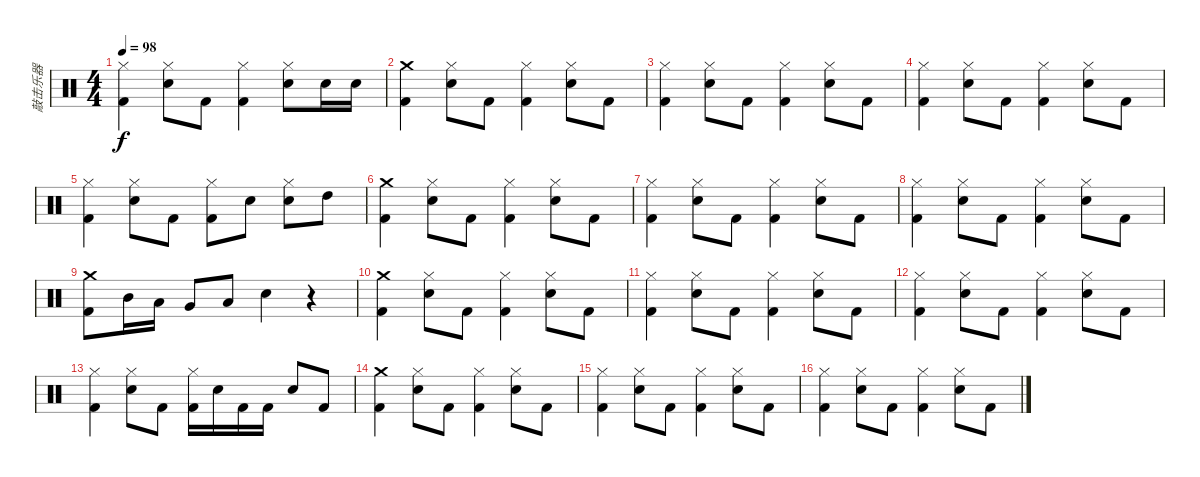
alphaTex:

\track ("敲击乐器" "敲击乐器") {instrument percussion}
\staff {score}
\articulation defaults
\ts (4 4)
\tempo 98
\clef neutral
\ks c
("Hi-Hat (closed)" "Kick (hit) 2").4{dy f} ("Hi-Hat (closed)" "Snare (hit) 2").8 "Kick (hit) 2".8 ("Hi-Hat (closed)" "Kick (hit) 2").4 ("Hi-Hat (closed)" "Snare (hit) 2").8 "Snare (hit) 2".16 "Snare (hit) 2".16 |
("Crash medium (hit)" "Kick (hit) 2").4 ("Hi-Hat (closed)" "Snare (hit) 2").8 "Kick (hit) 2".8 ("Hi-Hat (closed)" "Kick (hit) 2").4 ("Hi-Hat (closed)" "Snare (hit) 2").8 "Kick (hit) 2".8 |
("Hi-Hat (closed)" "Kick (hit) 2").4 ("Hi-Hat (closed)" "Snare (hit) 2").8 "Kick (hit) 2".8 ("Hi-Hat (closed)" "Kick (hit) 2").4 ("Hi-Hat (closed)" "Snare (hit) 2").8 "Kick (hit) 2".8 |
("Hi-Hat (closed)" "Kick (hit) 2").4 ("Hi-Hat (closed)" "Snare (hit) 2").8 "Kick (hit) 2".8 ("Hi-Hat (closed)" "Kick (hit) 2").4 ("Hi-Hat (closed)" "Snare (hit) 2").8 "Kick (hit) 2".8 |
("Hi-Hat (closed)" "Kick (hit) 2").4 ("Hi-Hat (closed)" "Snare (hit) 2").8 "Kick (hit) 2".8 ("Hi-Hat (closed)" "Kick (hit) 2").8 "Snare (hit) 2".8 ("Hi-Hat (closed)" "Snare (hit) 2").8 "High Tom (hit)".8 |
("Crash medium (hit)" "Kick (hit) 2").4 ("Hi-Hat (closed)" "Snare (hit) 2").8 "Kick (hit) 2".8 ("Hi-Hat (closed)" "Kick (hit) 2").4 ("Hi-Hat (closed)" "Snare (hit) 2").8 "Kick (hit) 2".8 |
("Hi-Hat (closed)" "Kick (hit) 2").4 ("Hi-Hat (closed)" "Snare (hit) 2").8 "Kick (hit) 2".8 ("Hi-Hat (closed)" "Kick (hit) 2").4 ("Hi-Hat (closed)" "Snare (hit) 2").8 "Kick (hit) 2".8 |
("Hi-Hat (closed)" "Kick (hit) 2").4 ("Hi-Hat (closed)" "Snare (hit) 2").8 "Kick (hit) 2".8 ("Hi-Hat (closed)" "Kick (hit) 2").4 ("Hi-Hat (closed)" "Snare (hit) 2").8 "Kick (hit) 2".8 |
("Crash medium (hit)" "Kick (hit) 2").8 "Mid Tom (hit)".16 "Low Tom (hit)".16 "Very Low Tom (hit)".8 "Low Floor Tom (hit)".8 "Snare (hit) 2".4 r.4 |
("Crash medium (hit)" "Kick (hit) 2").4 ("Hi-Hat (closed)" "Snare (hit) 2").8 "Kick (hit) 2".8 ("Hi-Hat (closed)" "Kick (hit) 2").4 ("Hi-Hat (closed)" "Snare (hit) 2").8 "Kick (hit) 2".8 |
("Hi-Hat (closed)" "Kick (hit) 2").4 ("Hi-Hat (closed)" "Snare (hit) 2").8 "Kick (hit) 2".8 ("Hi-Hat (closed)" "Kick (hit) 2").4 ("Hi-Hat (closed)" "Snare (hit) 2").8 "Kick (hit) 2".8 |
("Hi-Hat (closed)" "Kick (hit) 2").4 ("Hi-Hat (closed)" "Snare (hit) 2").8 "Kick (hit) 2".8 ("Hi-Hat (closed)" "Kick (hit) 2").4 ("Hi-Hat (closed)" "Snare (hit) 2").8 "Kick (hit) 2".8 |
("Hi-Hat (closed)" "Kick (hit) 2").4 ("Hi-Hat (closed)" "Snare (hit) 2").8 "Kick (hit) 2".8 ("Hi-Hat (closed)" "Kick (hit) 2").16 "Snare (hit) 2".16 "Kick (hit) 2".16 "Kick (hit) 2".16 "Snare (hit) 2".8 "Kick (hit) 2".8 |
("Crash medium (hit)" "Kick (hit) 2").4 ("Hi-Hat (closed)" "Snare (hit) 2").8 "Kick (hit) 2".8 ("Hi-Hat (closed)" "Kick (hit) 2").4 ("Hi-Hat (closed)" "Snare (hit) 2").8 "Kick (hit) 2".8 |
("Hi-Hat (closed)" "Kick (hit) 2").4 ("Hi-Hat (closed)" "Snare (hit) 2").8 "Kick (hit) 2".8 ("Hi-Hat (closed)" "Kick (hit) 2").4 ("Hi-Hat (closed)" "Snare (hit) 2").8 "Kick (hit) 2".8 |
("Hi-Hat (closed)" "Kick (hit) 2").4 ("Hi-Hat (closed)" "Snare (hit) 2").8 "Kick (hit) 2".8 ("Hi-Hat (closed)" "Kick (hit) 2").4 ("Hi-Hat (closed)" "Snare (hit) 2").8 "Kick (hit) 2".8
